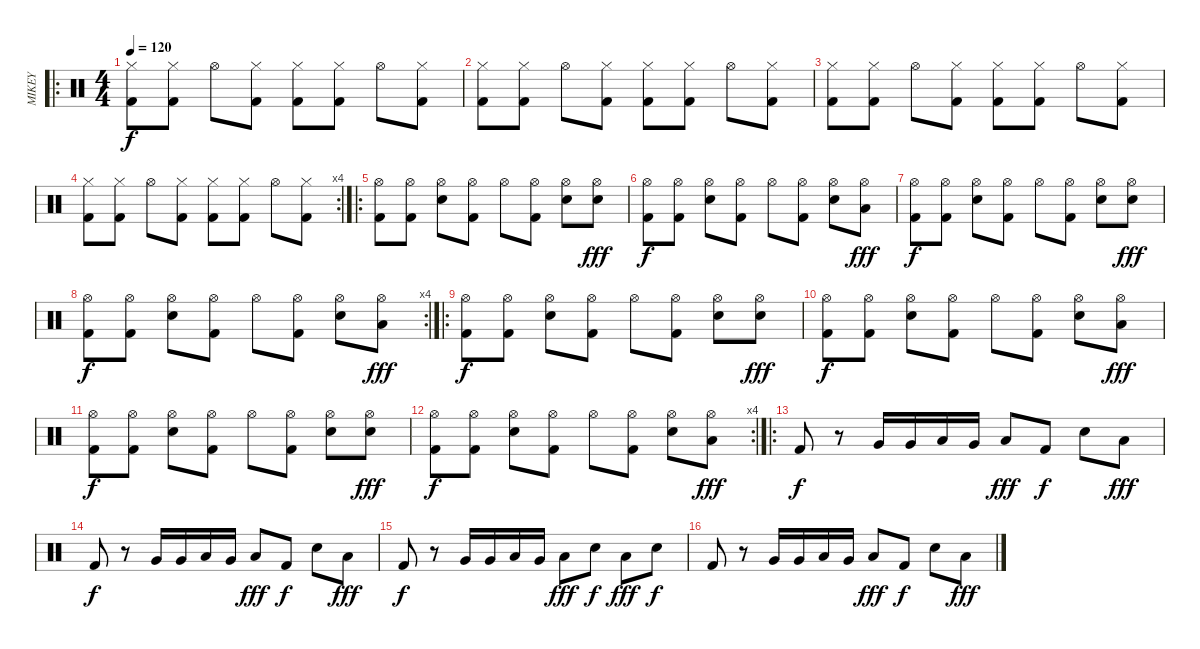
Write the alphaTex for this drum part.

\track ("MIKEY" "MIKEY") {instrument percussion}
\staff {score}
\articulation defaults
\ro
\ts (4 4)
\tempo 120
\clef neutral
\ks c
("Kick (hit) 2" "Hi-Hat (closed)").8{dy f} ("Kick (hit) 2" "Hi-Hat (closed)").8 "Hi-Hat (open)".8 ("Kick (hit) 2" "Hi-Hat (closed)").8 ("Kick (hit) 2" "Hi-Hat (closed)").8 ("Kick (hit) 2" "Hi-Hat (closed)").8 "Hi-Hat (open)".8 ("Kick (hit) 2" "Hi-Hat (closed)").8 |
("Kick (hit) 2" "Hi-Hat (closed)").8 ("Kick (hit) 2" "Hi-Hat (closed)").8 "Hi-Hat (open)".8 ("Kick (hit) 2" "Hi-Hat (closed)").8 ("Kick (hit) 2" "Hi-Hat (closed)").8 ("Kick (hit) 2" "Hi-Hat (closed)").8 "Hi-Hat (open)".8 ("Kick (hit) 2" "Hi-Hat (closed)").8 |
("Kick (hit) 2" "Hi-Hat (closed)").8 ("Kick (hit) 2" "Hi-Hat (closed)").8 "Hi-Hat (open)".8 ("Kick (hit) 2" "Hi-Hat (closed)").8 ("Kick (hit) 2" "Hi-Hat (closed)").8 ("Kick (hit) 2" "Hi-Hat (closed)").8 "Hi-Hat (open)".8 ("Kick (hit) 2" "Hi-Hat (closed)").8 |
\rc 4
("Kick (hit) 2" "Hi-Hat (closed)").8 ("Kick (hit) 2" "Hi-Hat (closed)").8 "Hi-Hat (open)".8 ("Kick (hit) 2" "Hi-Hat (closed)").8 ("Kick (hit) 2" "Hi-Hat (closed)").8 ("Kick (hit) 2" "Hi-Hat (closed)").8 "Hi-Hat (open)".8 ("Kick (hit) 2" "Hi-Hat (closed)").8 |
\ro
("Kick (hit) 2" "Hi-Hat (open)").8 ("Kick (hit) 2" "Hi-Hat (open)").8 ("Electric Snare (hit)" "Hi-Hat (open)").8 ("Kick (hit) 2" "Hi-Hat (open)").8 "Hi-Hat (open)".8 ("Kick (hit) 2" "Hi-Hat (open)").8 ("Electric Snare (hit)" "Hi-Hat (open)").8 ("Electric Snare (hit)" "Hi-Hat (open)").8{dy fff} |
("Kick (hit) 2" "Hi-Hat (open)").8{dy f} ("Kick (hit) 2" "Hi-Hat (open)").8 ("Electric Snare (hit)" "Hi-Hat (open)").8 ("Kick (hit) 2" "Hi-Hat (open)").8 "Hi-Hat (open)".8 ("Kick (hit) 2" "Hi-Hat (open)").8 ("Electric Snare (hit)" "Hi-Hat (open)").8 ("Low Tom (hit)" "Hi-Hat (open)").8{dy fff} |
("Kick (hit) 2" "Hi-Hat (open)").8{dy f} ("Kick (hit) 2" "Hi-Hat (open)").8 ("Electric Snare (hit)" "Hi-Hat (open)").8 ("Kick (hit) 2" "Hi-Hat (open)").8 "Hi-Hat (open)".8 ("Kick (hit) 2" "Hi-Hat (open)").8 ("Electric Snare (hit)" "Hi-Hat (open)").8 ("Electric Snare (hit)" "Hi-Hat (open)").8{dy fff} |
\rc 4
("Kick (hit) 2" "Hi-Hat (open)").8{dy f} ("Kick (hit) 2" "Hi-Hat (open)").8 ("Electric Snare (hit)" "Hi-Hat (open)").8 ("Kick (hit) 2" "Hi-Hat (open)").8 "Hi-Hat (open)".8 ("Kick (hit) 2" "Hi-Hat (open)").8 ("Electric Snare (hit)" "Hi-Hat (open)").8 ("Low Tom (hit)" "Hi-Hat (open)").8{dy fff} |
\ro
("Kick (hit) 2" "Hi-Hat (open)").8{dy f} ("Kick (hit) 2" "Hi-Hat (open)").8 ("Electric Snare (hit)" "Hi-Hat (open)").8 ("Kick (hit) 2" "Hi-Hat (open)").8 "Hi-Hat (open)".8 ("Kick (hit) 2" "Hi-Hat (open)").8 ("Electric Snare (hit)" "Hi-Hat (open)").8 ("Electric Snare (hit)" "Hi-Hat (open)").8{dy fff} |
("Kick (hit) 2" "Hi-Hat (open)").8{dy f} ("Kick (hit) 2" "Hi-Hat (open)").8 ("Electric Snare (hit)" "Hi-Hat (open)").8 ("Kick (hit) 2" "Hi-Hat (open)").8 "Hi-Hat (open)".8 ("Kick (hit) 2" "Hi-Hat (open)").8 ("Electric Snare (hit)" "Hi-Hat (open)").8 ("Low Tom (hit)" "Hi-Hat (open)").8{dy fff} |
("Kick (hit) 2" "Hi-Hat (open)").8{dy f} ("Kick (hit) 2" "Hi-Hat (open)").8 ("Electric Snare (hit)" "Hi-Hat (open)").8 ("Kick (hit) 2" "Hi-Hat (open)").8 "Hi-Hat (open)".8 ("Kick (hit) 2" "Hi-Hat (open)").8 ("Electric Snare (hit)" "Hi-Hat (open)").8 ("Electric Snare (hit)" "Hi-Hat (open)").8{dy fff} |
\rc 4
("Kick (hit) 2" "Hi-Hat (open)").8{dy f} ("Kick (hit) 2" "Hi-Hat (open)").8 ("Electric Snare (hit)" "Hi-Hat (open)").8 ("Kick (hit) 2" "Hi-Hat (open)").8 "Hi-Hat (open)".8 ("Kick (hit) 2" "Hi-Hat (open)").8 ("Electric Snare (hit)" "Hi-Hat (open)").8 ("Low Tom (hit)" "Hi-Hat (open)").8{dy fff} |
\ro "Kick (hit) 2".8{dy f}
r.8 "Very Low Tom (hit)".16 "Very Low Tom (hit)".16 "Low Tom (hit)".16 "Very Low Tom (hit)".16 "Low Floor Tom (hit)".8{dy fff} "Kick (hit) 2".8{dy f} "Snare (hit) 2".8 "Low Floor Tom (hit)".8{dy fff} |
"Kick (hit) 2".8{dy f} r.8 "Very Low Tom (hit)".16 "Very Low Tom (hit)".16 "Low Tom (hit)".16 "Very Low Tom (hit)".16 "Low Floor Tom (hit)".8{dy fff} "Kick (hit) 2".8{dy f} "Snare (hit) 2".8 "Low Floor Tom (hit)".8{dy fff} |
"Kick (hit) 2".8{dy f} r.8 "Very Low Tom (hit)".16 "Very Low Tom (hit)".16 "Low Tom (hit)".16 "Very Low Tom (hit)".16 "Low Floor Tom (hit)".8{dy fff} "Electric Snare (hit)".8{dy f} "Low Floor Tom (hit)".8{dy fff} "Electric Snare (hit)".8{dy f} |
"Kick (hit) 2".8 r.8 "Very Low Tom (hit)".16 "Very Low Tom (hit)".16 "Low Tom (hit)".16 "Very Low Tom (hit)".16 "Low Floor Tom (hit)".8{dy fff} "Kick (hit) 2".8{dy f} "Snare (hit) 2".8 "Low Floor Tom (hit)".8{dy fff}
